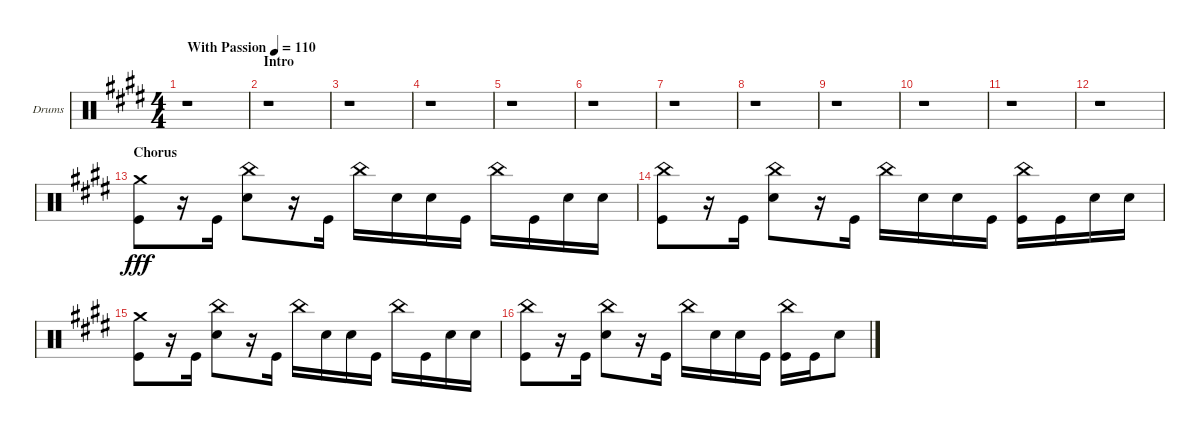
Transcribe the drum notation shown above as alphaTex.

\bracketExtendMode groupsimilarinstruments
\firstSystemTrackNameOrientation horizontal
\otherSystemsTrackNameOrientation horizontal
\track ("Drumkit" "Drums") {instrument percussion}
\staff {score}
\articulation defaults
\ts (4 4)
\tempo (110 "With Passion")
\clef neutral
\scale
0.540984
\ks c#minor
r.1{dy fff} |
\section ("" "Intro")
\scale
0.229508 r.1 |
\scale
0.229508 r.1 |
\scale
0.333333 r.1 |
\scale
0.333333 r.1 |
\scale
0.333333 r.1 |
\scale
0.333333 r.1 |
\scale
0.333333 r.1 |
\scale
0.333333 r.1 |
\scale
0.333333 r.1 |
\scale
0.333333 r.1 |
\scale
0.333333 r.1 |
\section ("" "Chorus")
\scale
0.333333 ("Kick (hit)" "Crash medium (hit)").8 r.16 "Kick (hit)".16 ("China (hit)" "Snare (hit) 2").8 r.16 "Kick (hit)".16 "China (hit)".16 "Snare (hit) 2".16 "Snare (hit) 2".16 "Kick (hit)".16 "China (hit)".16 "Kick (hit)".16 "Snare (hit) 2".16 "Snare (hit) 2".16 |
\scale
0.333333 ("Kick (hit)" "China (hit)").8 r.16 "Kick (hit)".16 ("Snare (hit) 2" "China (hit)").8 r.16 "Kick (hit)".16 "China (hit)".16 "Snare (hit) 2".16 "Snare (hit) 2".16 "Kick (hit)".16 ("China (hit)" "Kick (hit)").16 "Kick (hit)".16 "Snare (hit) 2".16 "Snare (hit) 2".16 |
\scale
0.333333 ("Crash medium (hit)" "Kick (hit)").8 r.16 "Kick (hit)".16 ("Snare (hit) 2" "China (hit)").8 r.16 "Kick (hit)".16 "China (hit)".16 "Snare (hit) 2".16 "Snare (hit) 2".16 "Kick (hit)".16 "China (hit)".16 "Kick (hit)".16 "Snare (hit) 2".16 "Snare (hit) 2".16 |
\scale
0.333333 ("China (hit)" "Kick (hit)").8 r.16 "Kick (hit)".16 ("China (hit)" "Snare (hit) 2").8 r.16 "Kick (hit)".16 "China (hit)".16 "Snare (hit) 2".16 "Snare (hit) 2".16 "Kick (hit)".16 ("Kick (hit)" "China (hit)").16 "Kick (hit)".16 "Snare (hit) 2".8
